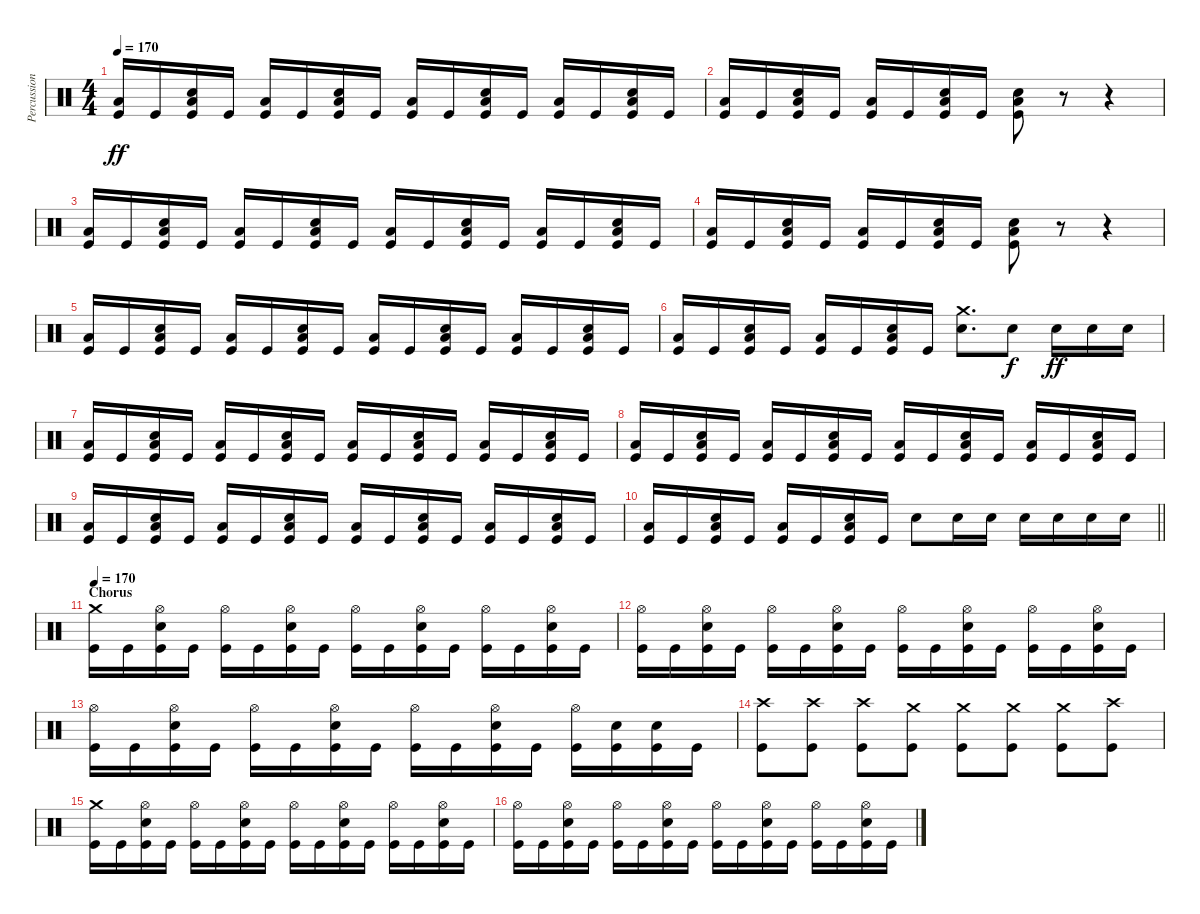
\track ("Percussion" "Percussion") {instrument percussion}
\staff {score}
\articulation defaults
\ts (4 4)
\tempo 170
\clef neutral
\ks c
("Low Floor Tom (hit)" "Kick (hit)").16{dy ff} "Kick (hit)".16 ("Low Floor Tom (hit)" "Snare (hit) 2" "Kick (hit)").16 "Kick (hit)".16 ("Low Floor Tom (hit)" "Kick (hit)").16 "Kick (hit)".16 ("Low Floor Tom (hit)" "Snare (hit) 2" "Kick (hit)").16 "Kick (hit)".16 ("Low Floor Tom (hit)" "Kick (hit)").16 "Kick (hit)".16 ("Low Floor Tom (hit)" "Snare (hit) 2" "Kick (hit)").16 "Kick (hit)".16 ("Low Floor Tom (hit)" "Kick (hit)").16 "Kick (hit)".16 ("Low Floor Tom (hit)" "Snare (hit) 2" "Kick (hit)").16 "Kick (hit)".16 |
("Low Floor Tom (hit)" "Kick (hit)").16 "Kick (hit)".16 ("Low Floor Tom (hit)" "Snare (hit) 2" "Kick (hit)").16 "Kick (hit)".16 ("Low Floor Tom (hit)" "Kick (hit)").16 "Kick (hit)".16 ("Low Floor Tom (hit)" "Snare (hit) 2" "Kick (hit)").16 "Kick (hit)".16 ("Low Floor Tom (hit)" "Snare (hit) 2" "Kick (hit)").8 r.8 r.4 |
("Low Floor Tom (hit)" "Kick (hit)").16 "Kick (hit)".16 ("Low Floor Tom (hit)" "Snare (hit) 2" "Kick (hit)").16 "Kick (hit)".16 ("Low Floor Tom (hit)" "Kick (hit)").16 "Kick (hit)".16 ("Low Floor Tom (hit)" "Snare (hit) 2" "Kick (hit)").16 "Kick (hit)".16 ("Low Floor Tom (hit)" "Kick (hit)").16 "Kick (hit)".16 ("Low Floor Tom (hit)" "Snare (hit) 2" "Kick (hit)").16 "Kick (hit)".16 ("Low Floor Tom (hit)" "Kick (hit)").16 "Kick (hit)".16 ("Low Floor Tom (hit)" "Snare (hit) 2" "Kick (hit)").16 "Kick (hit)".16 |
("Low Floor Tom (hit)" "Kick (hit)").16 "Kick (hit)".16 ("Low Floor Tom (hit)" "Snare (hit) 2" "Kick (hit)").16 "Kick (hit)".16 ("Low Floor Tom (hit)" "Kick (hit)").16 "Kick (hit)".16 ("Low Floor Tom (hit)" "Snare (hit) 2" "Kick (hit)").16 "Kick (hit)".16 ("Low Floor Tom (hit)" "Snare (hit) 2" "Kick (hit)").8 r.8 r.4 |
("Low Floor Tom (hit)" "Kick (hit)").16 "Kick (hit)".16 ("Low Floor Tom (hit)" "Snare (hit) 2" "Kick (hit)").16 "Kick (hit)".16 ("Low Floor Tom (hit)" "Kick (hit)").16 "Kick (hit)".16 ("Low Floor Tom (hit)" "Snare (hit) 2" "Kick (hit)").16 "Kick (hit)".16 ("Low Floor Tom (hit)" "Kick (hit)").16 "Kick (hit)".16 ("Low Floor Tom (hit)" "Snare (hit) 2" "Kick (hit)").16 "Kick (hit)".16 ("Low Floor Tom (hit)" "Kick (hit)").16 "Kick (hit)".16 ("Low Floor Tom (hit)" "Snare (hit) 2" "Kick (hit)").16 "Kick (hit)".16 |
("Low Floor Tom (hit)" "Kick (hit)").16 "Kick (hit)".16 ("Low Floor Tom (hit)" "Snare (hit) 2" "Kick (hit)").16 "Kick (hit)".16 ("Low Floor Tom (hit)" "Kick (hit)").16 "Kick (hit)".16 ("Low Floor Tom (hit)" "Snare (hit) 2" "Kick (hit)").16 "Kick (hit)".16 ("Crash medium (hit)" "Snare (hit) 2").8{d} "Snare (hit) 2".8{dy f} "Snare (hit) 2".16{dy ff} "Snare (hit) 2".16 "Snare (hit) 2".16 |
("Low Floor Tom (hit)" "Kick (hit)").16 "Kick (hit)".16 ("Low Floor Tom (hit)" "Snare (hit) 2" "Kick (hit)").16 "Kick (hit)".16 ("Low Floor Tom (hit)" "Kick (hit)").16 "Kick (hit)".16 ("Low Floor Tom (hit)" "Snare (hit) 2" "Kick (hit)").16 "Kick (hit)".16 ("Low Floor Tom (hit)" "Kick (hit)").16 "Kick (hit)".16 ("Low Floor Tom (hit)" "Snare (hit) 2" "Kick (hit)").16 "Kick (hit)".16 ("Low Floor Tom (hit)" "Kick (hit)").16 "Kick (hit)".16 ("Low Floor Tom (hit)" "Snare (hit) 2" "Kick (hit)").16 "Kick (hit)".16 |
("Low Floor Tom (hit)" "Kick (hit)").16 "Kick (hit)".16 ("Low Floor Tom (hit)" "Snare (hit) 2" "Kick (hit)").16 "Kick (hit)".16 ("Low Floor Tom (hit)" "Kick (hit)").16 "Kick (hit)".16 ("Low Floor Tom (hit)" "Snare (hit) 2" "Kick (hit)").16 "Kick (hit)".16 ("Low Floor Tom (hit)" "Kick (hit)").16 "Kick (hit)".16 ("Low Floor Tom (hit)" "Snare (hit) 2" "Kick (hit)").16 "Kick (hit)".16 ("Low Floor Tom (hit)" "Kick (hit)").16 "Kick (hit)".16 ("Low Floor Tom (hit)" "Snare (hit) 2" "Kick (hit)").16 "Kick (hit)".16 |
("Low Floor Tom (hit)" "Kick (hit)").16 "Kick (hit)".16 ("Low Floor Tom (hit)" "Snare (hit) 2" "Kick (hit)").16 "Kick (hit)".16 ("Low Floor Tom (hit)" "Kick (hit)").16 "Kick (hit)".16 ("Low Floor Tom (hit)" "Snare (hit) 2" "Kick (hit)").16 "Kick (hit)".16 ("Low Floor Tom (hit)" "Kick (hit)").16 "Kick (hit)".16 ("Low Floor Tom (hit)" "Snare (hit) 2" "Kick (hit)").16 "Kick (hit)".16 ("Low Floor Tom (hit)" "Kick (hit)").16 "Kick (hit)".16 ("Low Floor Tom (hit)" "Snare (hit) 2" "Kick (hit)").16 "Kick (hit)".16 |
\barLineRight lightlight
("Low Floor Tom (hit)" "Kick (hit)").16 "Kick (hit)".16 ("Low Floor Tom (hit)" "Snare (hit) 2" "Kick (hit)").16 "Kick (hit)".16 ("Low Floor Tom (hit)" "Kick (hit)").16 "Kick (hit)".16 ("Low Floor Tom (hit)" "Snare (hit) 2" "Kick (hit)").16 "Kick (hit)".16 "Snare (hit) 2".8 "Snare (hit) 2".16 "Snare (hit) 2".16 "Snare (hit) 2".16 "Snare (hit) 2".16 "Snare (hit) 2".16 "Snare (hit) 2".16 |
\section ("" "Chorus")
\tempo 170
("Crash medium (hit)" "Kick (hit)").16 "Kick (hit)".16 ("Hi-Hat (open)" "Snare (hit) 2" "Kick (hit)").16 "Kick (hit)".16 ("Hi-Hat (open)" "Kick (hit)").16 "Kick (hit)".16 ("Hi-Hat (open)" "Snare (hit) 2" "Kick (hit)").16 "Kick (hit)".16 ("Hi-Hat (open)" "Kick (hit)").16 "Kick (hit)".16 ("Hi-Hat (open)" "Snare (hit) 2" "Kick (hit)").16 "Kick (hit)".16 ("Hi-Hat (open)" "Kick (hit)").16 "Kick (hit)".16 ("Hi-Hat (open)" "Snare (hit) 2" "Kick (hit)").16 "Kick (hit)".16 |
("Hi-Hat (open)" "Kick (hit)").16 "Kick (hit)".16 ("Hi-Hat (open)" "Snare (hit) 2" "Kick (hit)").16 "Kick (hit)".16 ("Hi-Hat (open)" "Kick (hit)").16 "Kick (hit)".16 ("Hi-Hat (open)" "Snare (hit) 2" "Kick (hit)").16 "Kick (hit)".16 ("Hi-Hat (open)" "Kick (hit)").16 "Kick (hit)".16 ("Hi-Hat (open)" "Snare (hit) 2" "Kick (hit)").16 "Kick (hit)".16 ("Hi-Hat (open)" "Kick (hit)").16 "Kick (hit)".16 ("Hi-Hat (open)" "Snare (hit) 2" "Kick (hit)").16 "Kick (hit)".16 |
("Hi-Hat (open)" "Kick (hit)").16 "Kick (hit)".16 ("Hi-Hat (open)" "Snare (hit) 2" "Kick (hit)").16 "Kick (hit)".16 ("Hi-Hat (open)" "Kick (hit)").16 "Kick (hit)".16 ("Hi-Hat (open)" "Snare (hit) 2" "Kick (hit)").16 "Kick (hit)".16 ("Hi-Hat (open)" "Kick (hit)").16 "Kick (hit)".16 ("Hi-Hat (open)" "Snare (hit) 2" "Kick (hit)").16 "Kick (hit)".16 ("Hi-Hat (open)" "Kick (hit)").16 ("Snare (hit) 2" "Kick (hit)").16 ("Snare (hit) 2" "Kick (hit)").16 "Kick (hit)".16 |
("Crash high (hit)" "Kick (hit)").8 ("Crash high (hit)" "Kick (hit)").8 ("Crash high (hit)" "Kick (hit)").8 ("Crash medium (hit)" "Kick (hit)").8 ("Crash medium (hit)" "Kick (hit)").8 ("Crash medium (hit)" "Kick (hit)").8 ("Crash medium (hit)" "Kick (hit)").8 ("Crash high (hit)" "Kick (hit)").8 |
("Crash medium (hit)" "Kick (hit)").16 "Kick (hit)".16 ("Hi-Hat (open)" "Snare (hit) 2" "Kick (hit)").16 "Kick (hit)".16 ("Hi-Hat (open)" "Kick (hit)").16 "Kick (hit)".16 ("Hi-Hat (open)" "Snare (hit) 2" "Kick (hit)").16 "Kick (hit)".16 ("Hi-Hat (open)" "Kick (hit)").16 "Kick (hit)".16 ("Hi-Hat (open)" "Snare (hit) 2" "Kick (hit)").16 "Kick (hit)".16 ("Hi-Hat (open)" "Kick (hit)").16 "Kick (hit)".16 ("Hi-Hat (open)" "Snare (hit) 2" "Kick (hit)").16 "Kick (hit)".16 |
("Hi-Hat (open)" "Kick (hit)").16 "Kick (hit)".16 ("Hi-Hat (open)" "Snare (hit) 2" "Kick (hit)").16 "Kick (hit)".16 ("Hi-Hat (open)" "Kick (hit)").16 "Kick (hit)".16 ("Hi-Hat (open)" "Snare (hit) 2" "Kick (hit)").16 "Kick (hit)".16 ("Hi-Hat (open)" "Kick (hit)").16 "Kick (hit)".16 ("Hi-Hat (open)" "Snare (hit) 2" "Kick (hit)").16 "Kick (hit)".16 ("Hi-Hat (open)" "Kick (hit)").16 "Kick (hit)".16 ("Hi-Hat (open)" "Snare (hit) 2" "Kick (hit)").16 "Kick (hit)".16
